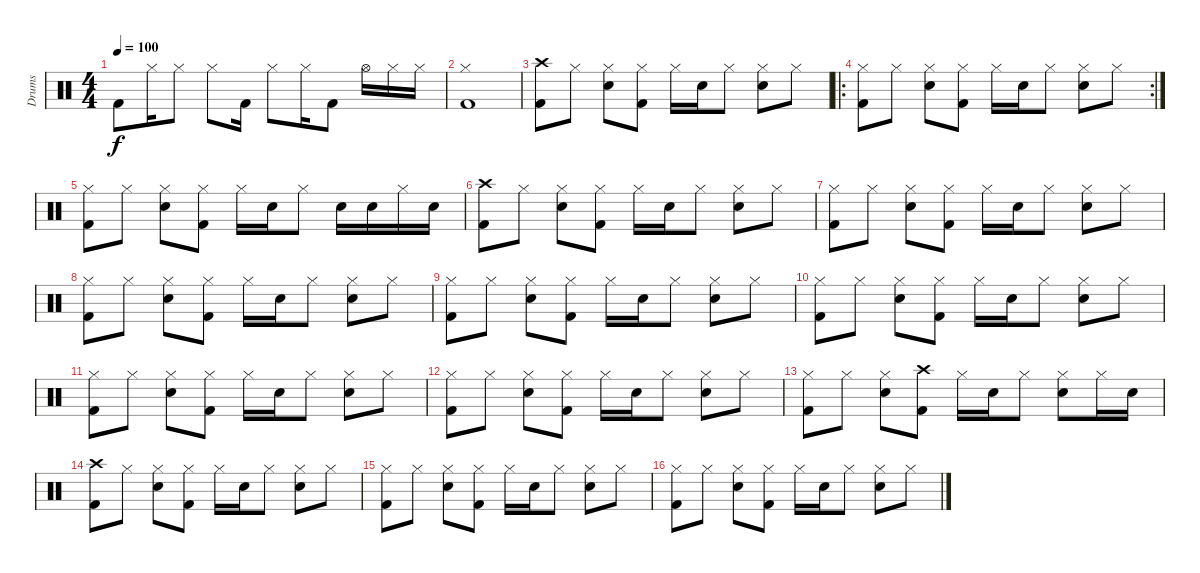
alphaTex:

\track ("Drums" "Drums") {instrument percussion}
\staff {score}
\articulation defaults
\ts (4 4)
\tempo 100
\clef neutral
\ks c "Kick (hit) 2".8{dy f} "Hi-Hat (closed)".16 "Hi-Hat (closed)".8 "Hi-Hat (closed)".8 "Kick (hit) 2".16 "Hi-Hat (closed)".8 "Hi-Hat (closed)".16 "Kick (hit) 2".8 "Hi-Hat (open)".16 "Hi-Hat (closed)".16 "Hi-Hat (closed)".16
|
("Hi-Hat (closed)" "Kick (hit) 2").1 |
("Crash high (hit)" "Kick (hit) 2").8 "Hi-Hat (closed)".8 ("Hi-Hat (closed)" "Snare (hit) 2").8 ("Hi-Hat (closed)" "Kick (hit) 2").8 "Hi-Hat (closed)".16 "Snare (hit) 2".16 "Hi-Hat (closed)".8 ("Hi-Hat (closed)" "Snare (hit) 2").8 "Hi-Hat (closed)".8 |
\ro
\rc 2
("Hi-Hat (closed)" "Kick (hit) 2").8 "Hi-Hat (closed)".8 ("Hi-Hat (closed)" "Snare (hit) 2").8 ("Hi-Hat (closed)" "Kick (hit) 2").8 "Hi-Hat (closed)".16 "Snare (hit) 2".16 "Hi-Hat (closed)".8 ("Hi-Hat (closed)" "Snare (hit) 2").8 "Hi-Hat (closed)".8 |
("Hi-Hat (closed)" "Kick (hit) 2").8 "Hi-Hat (closed)".8 ("Hi-Hat (closed)" "Snare (hit) 2").8 ("Hi-Hat (closed)" "Kick (hit) 2").8 "Hi-Hat (closed)".16 "Snare (hit) 2".16 "Hi-Hat (closed)".8 "Snare (hit) 2".16 "Snare (hit) 2".16 "Hi-Hat (closed)".16 "Snare (hit) 2".16 |
("Crash high (hit)" "Kick (hit) 2").8 "Hi-Hat (closed)".8 ("Hi-Hat (closed)" "Snare (hit) 2").8 ("Hi-Hat (closed)" "Kick (hit) 2").8 "Hi-Hat (closed)".16 "Snare (hit) 2".16 "Hi-Hat (closed)".8 ("Hi-Hat (closed)" "Snare (hit) 2").8 "Hi-Hat (closed)".8 |
("Hi-Hat (closed)" "Kick (hit) 2").8 "Hi-Hat (closed)".8 ("Hi-Hat (closed)" "Snare (hit) 2").8 ("Hi-Hat (closed)" "Kick (hit) 2").8 "Hi-Hat (closed)".16 "Snare (hit) 2".16 "Hi-Hat (closed)".8 ("Hi-Hat (closed)" "Snare (hit) 2").8 "Hi-Hat (closed)".8 |
("Hi-Hat (closed)" "Kick (hit) 2").8 "Hi-Hat (closed)".8 ("Hi-Hat (closed)" "Snare (hit) 2").8 ("Hi-Hat (closed)" "Kick (hit) 2").8 "Hi-Hat (closed)".16 "Snare (hit) 2".16 "Hi-Hat (closed)".8 ("Hi-Hat (closed)" "Snare (hit) 2").8 "Hi-Hat (closed)".8 |
("Hi-Hat (closed)" "Kick (hit) 2").8 "Hi-Hat (closed)".8 ("Hi-Hat (closed)" "Snare (hit) 2").8 ("Hi-Hat (closed)" "Kick (hit) 2").8 "Hi-Hat (closed)".16 "Snare (hit) 2".16 "Hi-Hat (closed)".8 ("Hi-Hat (closed)" "Snare (hit) 2").8 "Hi-Hat (closed)".8 |
("Hi-Hat (closed)" "Kick (hit) 2").8 "Hi-Hat (closed)".8 ("Hi-Hat (closed)" "Snare (hit) 2").8 ("Hi-Hat (closed)" "Kick (hit) 2").8 "Hi-Hat (closed)".16 "Snare (hit) 2".16 "Hi-Hat (closed)".8 ("Hi-Hat (closed)" "Snare (hit) 2").8 "Hi-Hat (closed)".8 |
("Hi-Hat (closed)" "Kick (hit) 2").8 "Hi-Hat (closed)".8 ("Hi-Hat (closed)" "Snare (hit) 2").8 ("Hi-Hat (closed)" "Kick (hit) 2").8 "Hi-Hat (closed)".16 "Snare (hit) 2".16 "Hi-Hat (closed)".8 ("Hi-Hat (closed)" "Snare (hit) 2").8 "Hi-Hat (closed)".8 |
("Hi-Hat (closed)" "Kick (hit) 2").8 "Hi-Hat (closed)".8 ("Hi-Hat (closed)" "Snare (hit) 2").8 ("Hi-Hat (closed)" "Kick (hit) 2").8 "Hi-Hat (closed)".16 "Snare (hit) 2".16 "Hi-Hat (closed)".8 ("Hi-Hat (closed)" "Snare (hit) 2").8 "Hi-Hat (closed)".8 |
("Hi-Hat (closed)" "Kick (hit) 2").8 "Hi-Hat (closed)".8 ("Hi-Hat (closed)" "Snare (hit) 2").8 ("Crash high (hit)" "Kick (hit) 2").8 "Hi-Hat (closed)".16 "Snare (hit) 2".16 "Hi-Hat (closed)".8 ("Hi-Hat (closed)" "Snare (hit) 2").8 "Hi-Hat (closed)".16 "Snare (hit) 2".16 |
("Crash high (hit)" "Kick (hit) 2").8 "Hi-Hat (closed)".8 ("Hi-Hat (closed)" "Snare (hit) 2").8 ("Hi-Hat (closed)" "Kick (hit) 2").8 "Hi-Hat (closed)".16 "Snare (hit) 2".16 "Hi-Hat (closed)".8 ("Hi-Hat (closed)" "Snare (hit) 2").8 "Hi-Hat (closed)".8 |
("Hi-Hat (closed)" "Kick (hit) 2").8 "Hi-Hat (closed)".8 ("Hi-Hat (closed)" "Snare (hit) 2").8 ("Hi-Hat (closed)" "Kick (hit) 2").8 "Hi-Hat (closed)".16 "Snare (hit) 2".16 "Hi-Hat (closed)".8 ("Hi-Hat (closed)" "Snare (hit) 2").8 "Hi-Hat (closed)".8 |
("Hi-Hat (closed)" "Kick (hit) 2").8 "Hi-Hat (closed)".8 ("Hi-Hat (closed)" "Snare (hit) 2").8 ("Hi-Hat (closed)" "Kick (hit) 2").8 "Hi-Hat (closed)".16 "Snare (hit) 2".16 "Hi-Hat (closed)".8 ("Hi-Hat (closed)" "Snare (hit) 2").8 "Hi-Hat (closed)".8
